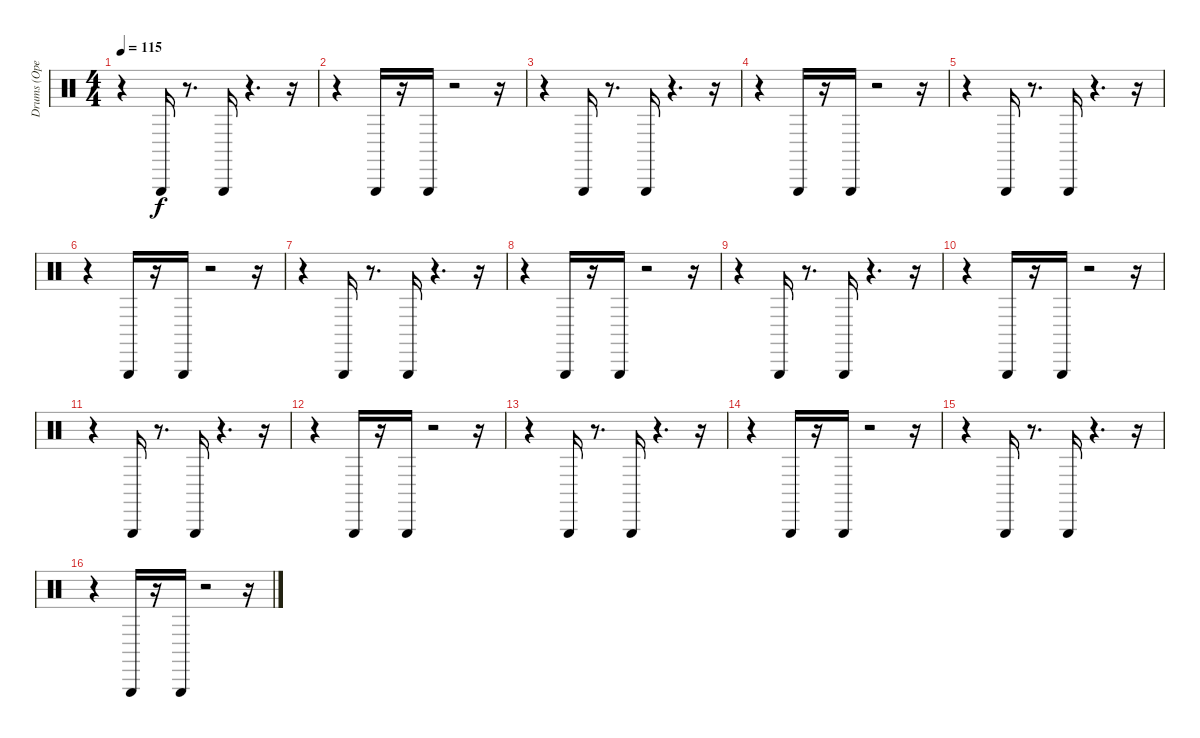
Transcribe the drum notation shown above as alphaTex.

\track ("Drums (Open triangle" "Drums (Ope") {instrument percussion}
\staff {score}
\articulation defaults
\ts (4 4)
\tempo 115
\clef neutral
\ks c
r.4{dy f} "Triangle (hit)".16 r.8{d} "Triangle (hit)".16 r.4{d} r.16 |
r.4 "Triangle (hit)".16 r.16 "Triangle (hit)".16 r.2 r.16 |
r.4 "Triangle (hit)".16 r.8{d} "Triangle (hit)".16 r.4{d} r.16 |
r.4 "Triangle (hit)".16 r.16 "Triangle (hit)".16 r.2 r.16 |
r.4 "Triangle (hit)".16 r.8{d} "Triangle (hit)".16 r.4{d} r.16 |
r.4 "Triangle (hit)".16 r.16 "Triangle (hit)".16 r.2 r.16 |
r.4 "Triangle (hit)".16 r.8{d} "Triangle (hit)".16 r.4{d} r.16 |
r.4 "Triangle (hit)".16 r.16 "Triangle (hit)".16 r.2 r.16 |
r.4 "Triangle (hit)".16 r.8{d} "Triangle (hit)".16 r.4{d} r.16 |
r.4 "Triangle (hit)".16 r.16 "Triangle (hit)".16 r.2 r.16 |
r.4 "Triangle (hit)".16 r.8{d} "Triangle (hit)".16 r.4{d} r.16 |
r.4 "Triangle (hit)".16 r.16 "Triangle (hit)".16 r.2 r.16 |
r.4 "Triangle (hit)".16 r.8{d} "Triangle (hit)".16 r.4{d} r.16 |
r.4 "Triangle (hit)".16 r.16 "Triangle (hit)".16 r.2 r.16 |
r.4 "Triangle (hit)".16 r.8{d} "Triangle (hit)".16 r.4{d} r.16 |
r.4 "Triangle (hit)".16 r.16 "Triangle (hit)".16 r.2 r.16
